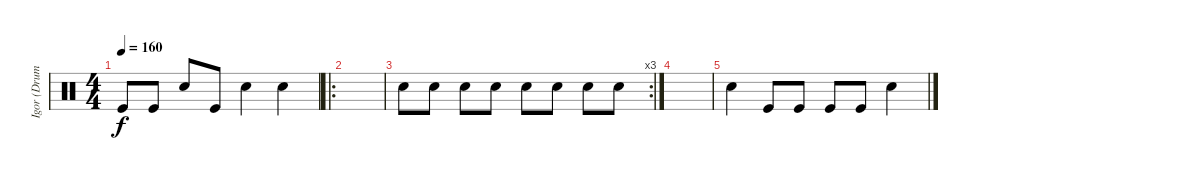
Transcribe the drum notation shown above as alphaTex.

\track ("Igor (Drum- Bass & Snare)" "Igor (Drum") {instrument percussion}
\staff {score}
\articulation defaults
\ts (4 4)
\tempo 160
\clef neutral
\ks c "Kick (hit)".8{dy f} "Kick (hit)".8 "Snare (hit) 2".8 "Kick (hit)".8 "Snare (hit) 2".4 "Snare (hit) 2".4
|
\ro
|
\rc 3 "Snare (hit) 2".8 "Snare (hit) 2".8 "Snare (hit) 2".8 "Snare (hit) 2".8 "Snare (hit) 2".8 "Snare (hit) 2".8 "Snare (hit) 2".8 "Snare (hit) 2".8
|
|
"Snare (hit) 2".4 "Kick (hit)".8 "Kick (hit)".8 "Kick (hit)".8 "Kick (hit)".8 "Snare (hit) 2".4
